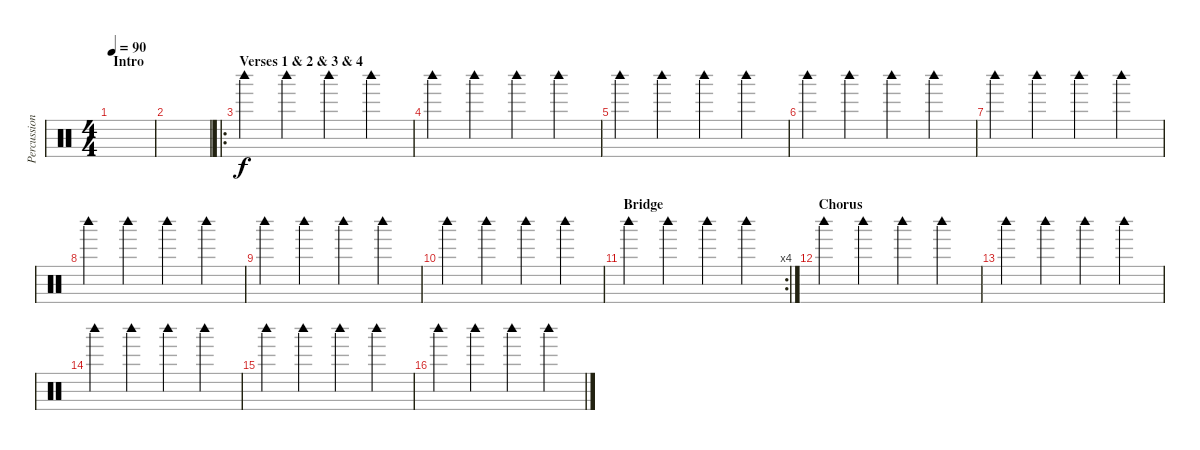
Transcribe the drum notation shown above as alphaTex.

\track ("Percussion" "Percussion") {instrument percussion}
\staff {score}
\articulation defaults
\ts (4 4)
\section ("" "Intro")
\tempo 90
\clef neutral
\ks c
|
|
\ro
\section ("" "Verses 1 & 2 & 3 & 4")
"Woodblock high (hit)".4 "Woodblock high (hit)".4 "Woodblock high (hit)".4 "Woodblock high (hit)".4 |
"Woodblock high (hit)".4 "Woodblock high (hit)".4 "Woodblock high (hit)".4 "Woodblock high (hit)".4 |
"Woodblock high (hit)".4 "Woodblock high (hit)".4 "Woodblock high (hit)".4 "Woodblock high (hit)".4 |
"Woodblock high (hit)".4 "Woodblock high (hit)".4 "Woodblock high (hit)".4 "Woodblock high (hit)".4 |
"Woodblock high (hit)".4 "Woodblock high (hit)".4 "Woodblock high (hit)".4 "Woodblock high (hit)".4 |
"Woodblock high (hit)".4 "Woodblock high (hit)".4 "Woodblock high (hit)".4 "Woodblock high (hit)".4 |
"Woodblock high (hit)".4 "Woodblock high (hit)".4 "Woodblock high (hit)".4 "Woodblock high (hit)".4 |
"Woodblock high (hit)".4 "Woodblock high (hit)".4 "Woodblock high (hit)".4 "Woodblock high (hit)".4 |
\rc 4
\section ("" "Bridge")
"Woodblock high (hit)".4 "Woodblock high (hit)".4 "Woodblock high (hit)".4 "Woodblock high (hit)".4 |
\section ("" "Chorus")
"Woodblock high (hit)".4 "Woodblock high (hit)".4 "Woodblock high (hit)".4 "Woodblock high (hit)".4 |
"Woodblock high (hit)".4 "Woodblock high (hit)".4 "Woodblock high (hit)".4 "Woodblock high (hit)".4 |
"Woodblock high (hit)".4 "Woodblock high (hit)".4 "Woodblock high (hit)".4 "Woodblock high (hit)".4 |
"Woodblock high (hit)".4 "Woodblock high (hit)".4 "Woodblock high (hit)".4 "Woodblock high (hit)".4 |
"Woodblock high (hit)".4 "Woodblock high (hit)".4 "Woodblock high (hit)".4 "Woodblock high (hit)".4
